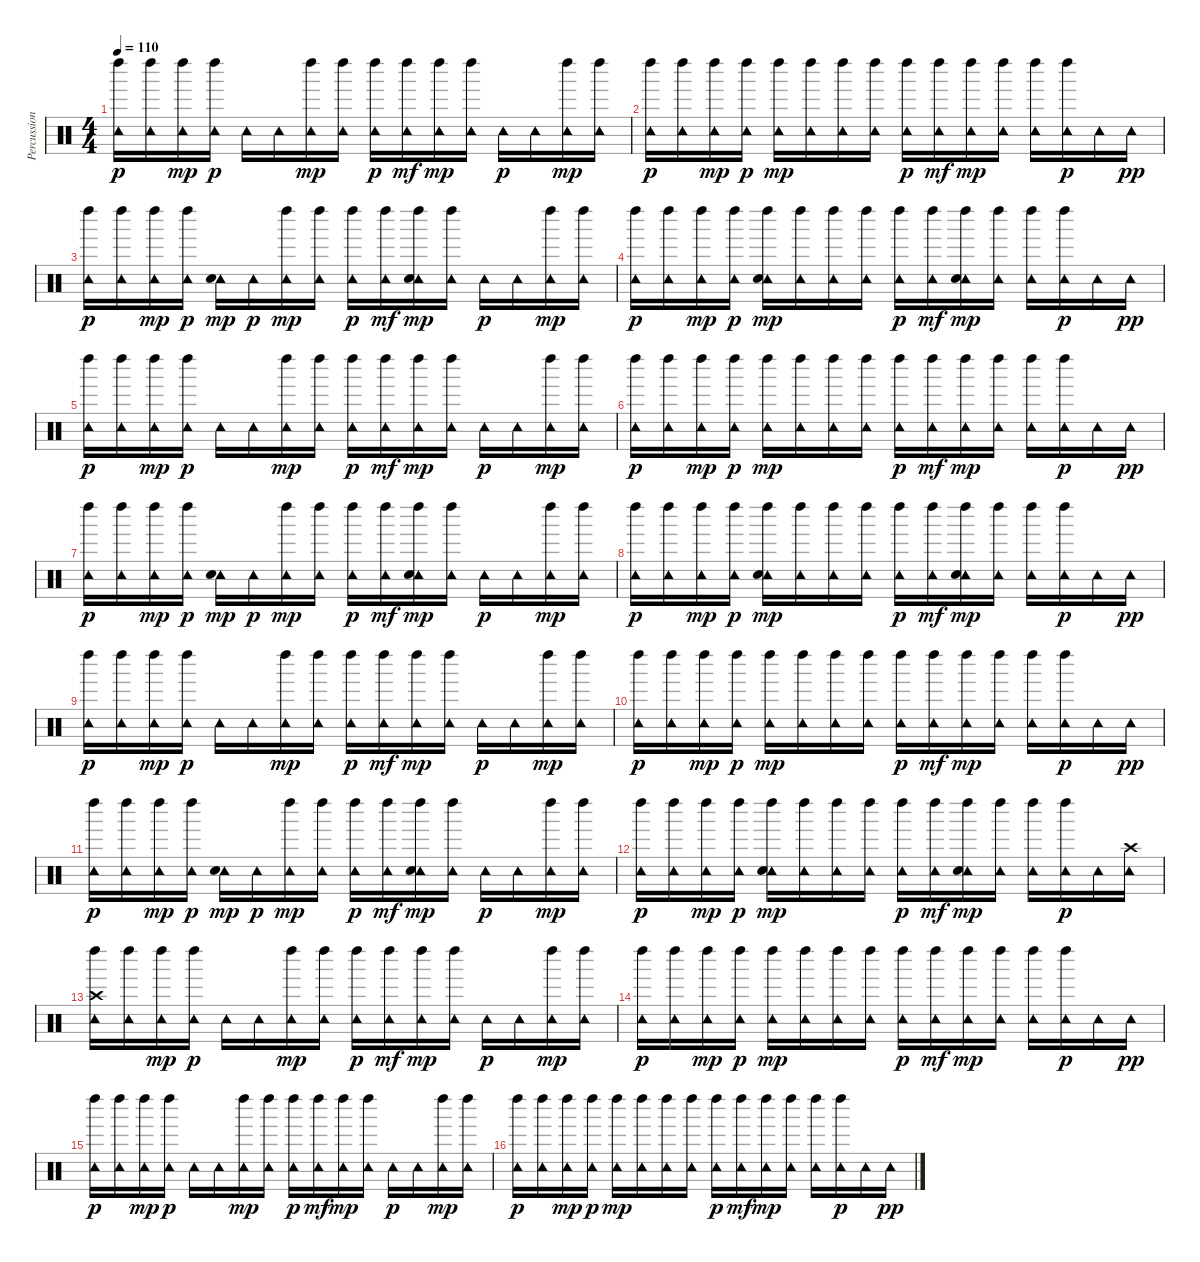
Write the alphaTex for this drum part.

\track ("Percussion" "Percussion") {instrument percussion}
\staff {score}
\articulation defaults
\ts (4 4)
\tempo 110
\clef neutral
\ks c
("Tambourine (hit)" "Left Maraca (hit)").16{dy p} ("Left Maraca (hit)" "Tambourine (hit)").16 ("Tambourine (hit)" "Left Maraca (hit)").16{dy mp} ("Left Maraca (hit)" "Tambourine (hit)").16{dy p} "Tambourine (hit)".16 "Tambourine (hit)".16 ("Tambourine (hit)" "Left Maraca (hit)").16{dy mp} ("Tambourine (hit)" "Left Maraca (hit)").16 ("Tambourine (hit)" "Left Maraca (hit)").16{dy p} ("Tambourine (hit)" "Left Maraca (hit)").16{dy mf} ("Tambourine (hit)" "Left Maraca (hit)").16{dy mp} ("Tambourine (hit)" "Left Maraca (hit)").16 "Tambourine (hit)".16{dy p} "Tambourine (hit)".16 ("Tambourine (hit)" "Left Maraca (hit)").16{dy mp} ("Tambourine (hit)" "Left Maraca (hit)").16 |
("Tambourine (hit)" "Left Maraca (hit)").16{dy p} ("Left Maraca (hit)" "Tambourine (hit)").16 ("Tambourine (hit)" "Left Maraca (hit)").16{dy mp} ("Left Maraca (hit)" "Tambourine (hit)").16{dy p} ("Tambourine (hit)" "Left Maraca (hit)").16{dy mp} ("Tambourine (hit)" "Left Maraca (hit)").16 ("Tambourine (hit)" "Left Maraca (hit)").16 ("Tambourine (hit)" "Left Maraca (hit)").16 ("Tambourine (hit)" "Left Maraca (hit)").16{dy p} ("Tambourine (hit)" "Left Maraca (hit)").16{dy mf} ("Tambourine (hit)" "Left Maraca (hit)").16{dy mp} ("Tambourine (hit)" "Left Maraca (hit)").16 ("Tambourine (hit)" "Left Maraca (hit)").16 ("Tambourine (hit)" "Left Maraca (hit)").16{dy p} "Tambourine (hit)".16 "Tambourine (hit)".16{dy pp} |
("Tambourine (hit)" "Left Maraca (hit)").16{dy p} ("Left Maraca (hit)" "Tambourine (hit)").16 ("Tambourine (hit)" "Left Maraca (hit)").16{dy mp} ("Left Maraca (hit)" "Tambourine (hit)").16{dy p} ("Tambourine (hit)" "Electric Snare (hit)").16{dy mp} "Tambourine (hit)".16{dy p} ("Tambourine (hit)" "Left Maraca (hit)").16{dy mp} ("Tambourine (hit)" "Left Maraca (hit)").16 ("Tambourine (hit)" "Left Maraca (hit)").16{dy p} ("Tambourine (hit)" "Left Maraca (hit)").16{dy mf} ("Tambourine (hit)" "Left Maraca (hit)" "Electric Snare (hit)").16{dy mp} ("Tambourine (hit)" "Left Maraca (hit)").16 "Tambourine (hit)".16{dy p} "Tambourine (hit)".16 ("Tambourine (hit)" "Left Maraca (hit)").16{dy mp} ("Tambourine (hit)" "Left Maraca (hit)").16 |
("Tambourine (hit)" "Left Maraca (hit)").16{dy p} ("Left Maraca (hit)" "Tambourine (hit)").16 ("Tambourine (hit)" "Left Maraca (hit)").16{dy mp} ("Left Maraca (hit)" "Tambourine (hit)").16{dy p} ("Tambourine (hit)" "Left Maraca (hit)" "Electric Snare (hit)").16{dy mp} ("Tambourine (hit)" "Left Maraca (hit)").16 ("Tambourine (hit)" "Left Maraca (hit)").16 ("Tambourine (hit)" "Left Maraca (hit)").16 ("Tambourine (hit)" "Left Maraca (hit)").16{dy p} ("Tambourine (hit)" "Left Maraca (hit)").16{dy mf} ("Tambourine (hit)" "Left Maraca (hit)" "Electric Snare (hit)").16{dy mp} ("Tambourine (hit)" "Left Maraca (hit)").16 ("Tambourine (hit)" "Left Maraca (hit)").16 ("Tambourine (hit)" "Left Maraca (hit)").16{dy p} "Tambourine (hit)".16 "Tambourine (hit)".16{dy pp} |
("Tambourine (hit)" "Left Maraca (hit)").16{dy p} ("Left Maraca (hit)" "Tambourine (hit)").16 ("Tambourine (hit)" "Left Maraca (hit)").16{dy mp} ("Left Maraca (hit)" "Tambourine (hit)").16{dy p} "Tambourine (hit)".16 "Tambourine (hit)".16 ("Tambourine (hit)" "Left Maraca (hit)").16{dy mp} ("Tambourine (hit)" "Left Maraca (hit)").16 ("Tambourine (hit)" "Left Maraca (hit)").16{dy p} ("Tambourine (hit)" "Left Maraca (hit)").16{dy mf} ("Tambourine (hit)" "Left Maraca (hit)").16{dy mp} ("Tambourine (hit)" "Left Maraca (hit)").16 "Tambourine (hit)".16{dy p} "Tambourine (hit)".16 ("Tambourine (hit)" "Left Maraca (hit)").16{dy mp} ("Tambourine (hit)" "Left Maraca (hit)").16 |
("Tambourine (hit)" "Left Maraca (hit)").16{dy p} ("Left Maraca (hit)" "Tambourine (hit)").16 ("Tambourine (hit)" "Left Maraca (hit)").16{dy mp} ("Left Maraca (hit)" "Tambourine (hit)").16{dy p} ("Tambourine (hit)" "Left Maraca (hit)").16{dy mp} ("Tambourine (hit)" "Left Maraca (hit)").16 ("Tambourine (hit)" "Left Maraca (hit)").16 ("Tambourine (hit)" "Left Maraca (hit)").16 ("Tambourine (hit)" "Left Maraca (hit)").16{dy p} ("Tambourine (hit)" "Left Maraca (hit)").16{dy mf} ("Tambourine (hit)" "Left Maraca (hit)").16{dy mp} ("Tambourine (hit)" "Left Maraca (hit)").16 ("Tambourine (hit)" "Left Maraca (hit)").16 ("Tambourine (hit)" "Left Maraca (hit)").16{dy p} "Tambourine (hit)".16 "Tambourine (hit)".16{dy pp} |
("Tambourine (hit)" "Left Maraca (hit)").16{dy p} ("Left Maraca (hit)" "Tambourine (hit)").16 ("Tambourine (hit)" "Left Maraca (hit)").16{dy mp} ("Left Maraca (hit)" "Tambourine (hit)").16{dy p} ("Tambourine (hit)" "Electric Snare (hit)").16{dy mp} "Tambourine (hit)".16{dy p} ("Tambourine (hit)" "Left Maraca (hit)").16{dy mp} ("Tambourine (hit)" "Left Maraca (hit)").16 ("Tambourine (hit)" "Left Maraca (hit)").16{dy p} ("Tambourine (hit)" "Left Maraca (hit)").16{dy mf} ("Tambourine (hit)" "Left Maraca (hit)" "Electric Snare (hit)").16{dy mp} ("Tambourine (hit)" "Left Maraca (hit)").16 "Tambourine (hit)".16{dy p} "Tambourine (hit)".16 ("Tambourine (hit)" "Left Maraca (hit)").16{dy mp} ("Tambourine (hit)" "Left Maraca (hit)").16 |
("Tambourine (hit)" "Left Maraca (hit)").16{dy p} ("Left Maraca (hit)" "Tambourine (hit)").16 ("Tambourine (hit)" "Left Maraca (hit)").16{dy mp} ("Left Maraca (hit)" "Tambourine (hit)").16{dy p} ("Tambourine (hit)" "Left Maraca (hit)" "Electric Snare (hit)").16{dy mp} ("Tambourine (hit)" "Left Maraca (hit)").16 ("Tambourine (hit)" "Left Maraca (hit)").16 ("Tambourine (hit)" "Left Maraca (hit)").16 ("Tambourine (hit)" "Left Maraca (hit)").16{dy p} ("Tambourine (hit)" "Left Maraca (hit)").16{dy mf} ("Tambourine (hit)" "Left Maraca (hit)" "Electric Snare (hit)").16{dy mp} ("Tambourine (hit)" "Left Maraca (hit)").16 ("Tambourine (hit)" "Left Maraca (hit)").16 ("Tambourine (hit)" "Left Maraca (hit)").16{dy p} "Tambourine (hit)".16 "Tambourine (hit)".16{dy pp} |
("Tambourine (hit)" "Left Maraca (hit)").16{dy p} ("Left Maraca (hit)" "Tambourine (hit)").16 ("Tambourine (hit)" "Left Maraca (hit)").16{dy mp} ("Left Maraca (hit)" "Tambourine (hit)").16{dy p} "Tambourine (hit)".16 "Tambourine (hit)".16 ("Tambourine (hit)" "Left Maraca (hit)").16{dy mp} ("Tambourine (hit)" "Left Maraca (hit)").16 ("Tambourine (hit)" "Left Maraca (hit)").16{dy p} ("Tambourine (hit)" "Left Maraca (hit)").16{dy mf} ("Tambourine (hit)" "Left Maraca (hit)").16{dy mp} ("Tambourine (hit)" "Left Maraca (hit)").16 "Tambourine (hit)".16{dy p} "Tambourine (hit)".16 ("Tambourine (hit)" "Left Maraca (hit)").16{dy mp} ("Tambourine (hit)" "Left Maraca (hit)").16 |
("Tambourine (hit)" "Left Maraca (hit)").16{dy p} ("Left Maraca (hit)" "Tambourine (hit)").16 ("Tambourine (hit)" "Left Maraca (hit)").16{dy mp} ("Left Maraca (hit)" "Tambourine (hit)").16{dy p} ("Tambourine (hit)" "Left Maraca (hit)").16{dy mp} ("Tambourine (hit)" "Left Maraca (hit)").16 ("Tambourine (hit)" "Left Maraca (hit)").16 ("Tambourine (hit)" "Left Maraca (hit)").16 ("Tambourine (hit)" "Left Maraca (hit)").16{dy p} ("Tambourine (hit)" "Left Maraca (hit)").16{dy mf} ("Tambourine (hit)" "Left Maraca (hit)").16{dy mp} ("Tambourine (hit)" "Left Maraca (hit)").16 ("Tambourine (hit)" "Left Maraca (hit)").16 ("Tambourine (hit)" "Left Maraca (hit)").16{dy p} "Tambourine (hit)".16 "Tambourine (hit)".16{dy pp} |
("Tambourine (hit)" "Left Maraca (hit)").16{dy p} ("Left Maraca (hit)" "Tambourine (hit)").16 ("Tambourine (hit)" "Left Maraca (hit)").16{dy mp} ("Left Maraca (hit)" "Tambourine (hit)").16{dy p} ("Tambourine (hit)" "Electric Snare (hit)").16{dy mp} "Tambourine (hit)".16{dy p} ("Tambourine (hit)" "Left Maraca (hit)").16{dy mp} ("Tambourine (hit)" "Left Maraca (hit)").16 ("Tambourine (hit)" "Left Maraca (hit)").16{dy p} ("Tambourine (hit)" "Left Maraca (hit)").16{dy mf} ("Tambourine (hit)" "Left Maraca (hit)" "Electric Snare (hit)").16{dy mp} ("Tambourine (hit)" "Left Maraca (hit)").16 "Tambourine (hit)".16{dy p} "Tambourine (hit)".16 ("Tambourine (hit)" "Left Maraca (hit)").16{dy mp} ("Tambourine (hit)" "Left Maraca (hit)").16 |
("Tambourine (hit)" "Left Maraca (hit)").16{dy p} ("Left Maraca (hit)" "Tambourine (hit)").16 ("Tambourine (hit)" "Left Maraca (hit)").16{dy mp} ("Left Maraca (hit)" "Tambourine (hit)").16{dy p} ("Tambourine (hit)" "Left Maraca (hit)" "Electric Snare (hit)").16{dy mp} ("Tambourine (hit)" "Left Maraca (hit)").16 ("Tambourine (hit)" "Left Maraca (hit)").16 ("Tambourine (hit)" "Left Maraca (hit)").16 ("Tambourine (hit)" "Left Maraca (hit)").16{dy p} ("Tambourine (hit)" "Left Maraca (hit)").16{dy mf} ("Tambourine (hit)" "Left Maraca (hit)" "Electric Snare (hit)").16{dy mp} ("Tambourine (hit)" "Left Maraca (hit)").16 ("Tambourine (hit)" "Left Maraca (hit)").16 ("Tambourine (hit)" "Left Maraca (hit)").16{dy p} "Tambourine (hit)".16 ("Tambourine (hit)" "Crash high (hit)").16 |
("Tambourine (hit)" "Left Maraca (hit)" "Crash high (hit)").16 ("Left Maraca (hit)" "Tambourine (hit)").16 ("Tambourine (hit)" "Left Maraca (hit)").16{dy mp} ("Left Maraca (hit)" "Tambourine (hit)").16{dy p} "Tambourine (hit)".16 "Tambourine (hit)".16 ("Tambourine (hit)" "Left Maraca (hit)").16{dy mp} ("Tambourine (hit)" "Left Maraca (hit)").16 ("Tambourine (hit)" "Left Maraca (hit)").16{dy p} ("Tambourine (hit)" "Left Maraca (hit)").16{dy mf} ("Tambourine (hit)" "Left Maraca (hit)").16{dy mp} ("Tambourine (hit)" "Left Maraca (hit)").16 "Tambourine (hit)".16{dy p} "Tambourine (hit)".16 ("Tambourine (hit)" "Left Maraca (hit)").16{dy mp} ("Tambourine (hit)" "Left Maraca (hit)").16 |
("Tambourine (hit)" "Left Maraca (hit)").16{dy p} ("Left Maraca (hit)" "Tambourine (hit)").16 ("Tambourine (hit)" "Left Maraca (hit)").16{dy mp} ("Left Maraca (hit)" "Tambourine (hit)").16{dy p} ("Tambourine (hit)" "Left Maraca (hit)").16{dy mp} ("Tambourine (hit)" "Left Maraca (hit)").16 ("Tambourine (hit)" "Left Maraca (hit)").16 ("Tambourine (hit)" "Left Maraca (hit)").16 ("Tambourine (hit)" "Left Maraca (hit)").16{dy p} ("Tambourine (hit)" "Left Maraca (hit)").16{dy mf} ("Tambourine (hit)" "Left Maraca (hit)").16{dy mp} ("Tambourine (hit)" "Left Maraca (hit)").16 ("Tambourine (hit)" "Left Maraca (hit)").16 ("Tambourine (hit)" "Left Maraca (hit)").16{dy p} "Tambourine (hit)".16 "Tambourine (hit)".16{dy pp} |
("Tambourine (hit)" "Left Maraca (hit)").16{dy p} ("Left Maraca (hit)" "Tambourine (hit)").16 ("Tambourine (hit)" "Left Maraca (hit)").16{dy mp} ("Left Maraca (hit)" "Tambourine (hit)").16{dy p} "Tambourine (hit)".16 "Tambourine (hit)".16 ("Tambourine (hit)" "Left Maraca (hit)").16{dy mp} ("Tambourine (hit)" "Left Maraca (hit)").16 ("Tambourine (hit)" "Left Maraca (hit)").16{dy p} ("Tambourine (hit)" "Left Maraca (hit)").16{dy mf} ("Tambourine (hit)" "Left Maraca (hit)").16{dy mp} ("Tambourine (hit)" "Left Maraca (hit)").16 "Tambourine (hit)".16{dy p} "Tambourine (hit)".16 ("Tambourine (hit)" "Left Maraca (hit)").16{dy mp} ("Tambourine (hit)" "Left Maraca (hit)").16 |
("Tambourine (hit)" "Left Maraca (hit)").16{dy p} ("Left Maraca (hit)" "Tambourine (hit)").16 ("Tambourine (hit)" "Left Maraca (hit)").16{dy mp} ("Left Maraca (hit)" "Tambourine (hit)").16{dy p} ("Tambourine (hit)" "Left Maraca (hit)").16{dy mp} ("Tambourine (hit)" "Left Maraca (hit)").16 ("Tambourine (hit)" "Left Maraca (hit)").16 ("Tambourine (hit)" "Left Maraca (hit)").16 ("Tambourine (hit)" "Left Maraca (hit)").16{dy p} ("Tambourine (hit)" "Left Maraca (hit)").16{dy mf} ("Tambourine (hit)" "Left Maraca (hit)").16{dy mp} ("Tambourine (hit)" "Left Maraca (hit)").16 ("Tambourine (hit)" "Left Maraca (hit)").16 ("Tambourine (hit)" "Left Maraca (hit)").16{dy p} "Tambourine (hit)".16 "Tambourine (hit)".16{dy pp}
